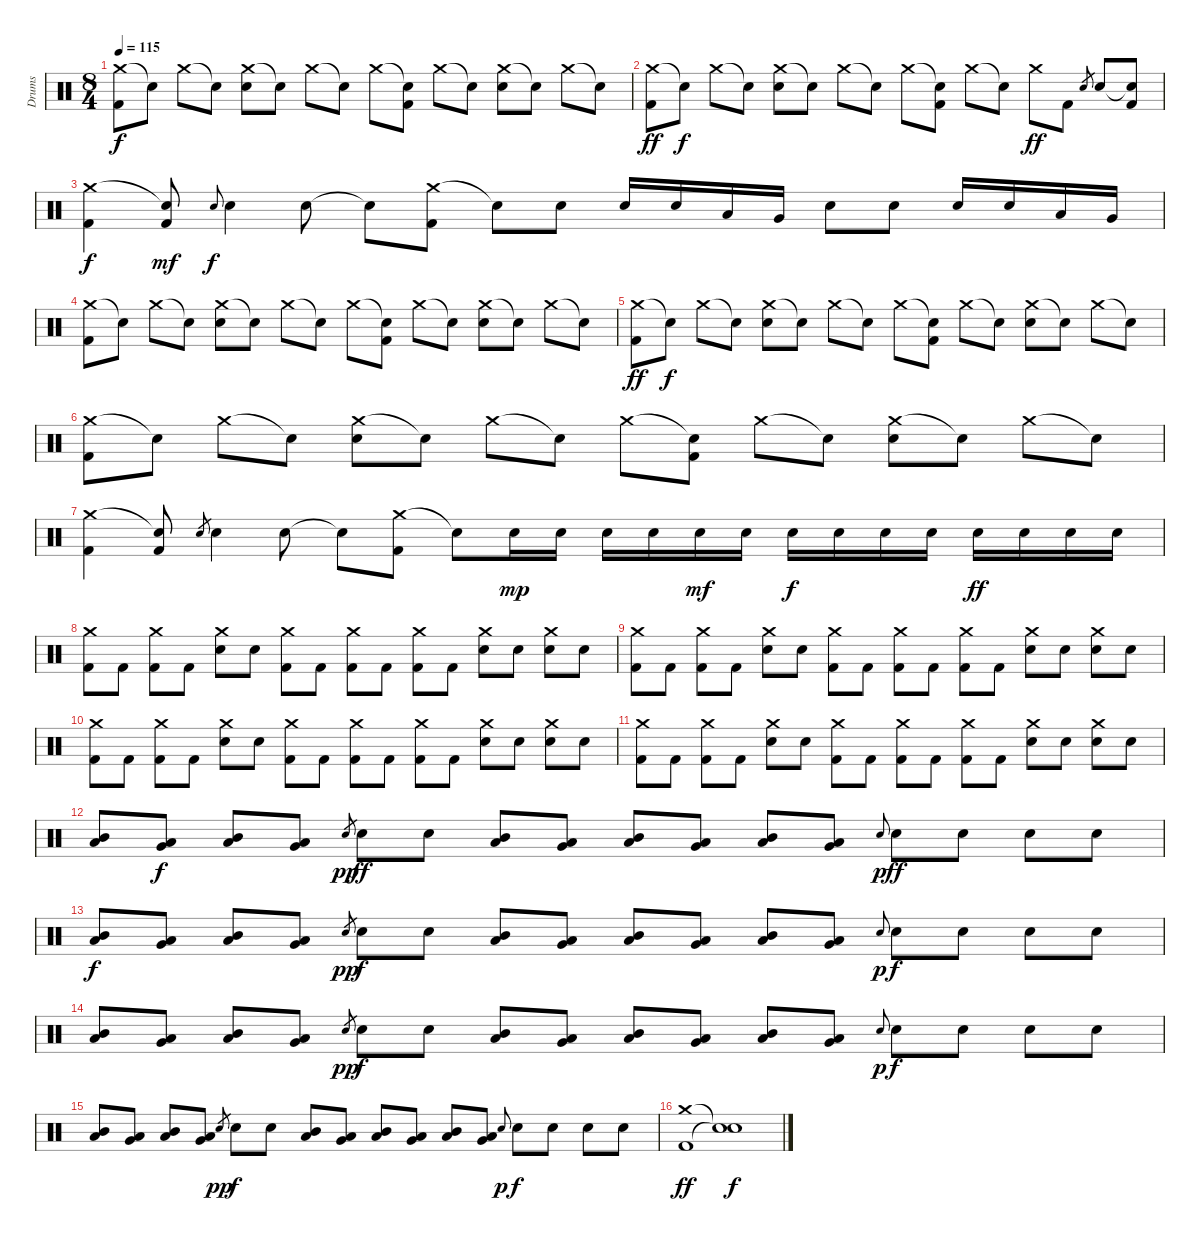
\track ("Drums" "Drums") {instrument percussion}
\staff {score}
\articulation defaults
\ts (8 4)
\tempo 115
\clef neutral
\ks c
("Crash medium (hit)" "Kick (hit) 2").8{dy f} "Snare (hit)"{t}.8 "Crash medium (hit)".8 "Snare (hit)"{t}.8 ("Crash medium (hit)" "Electric Snare (hit)").8 "Snare (hit)"{t}.8 "Crash medium (hit)".8 "Snare (hit)"{t}.8 "Crash medium (hit)".8 ("Snare (hit)"{t} "Kick (hit) 2").8 "Crash medium (hit)".8 "Snare (hit)"{t}.8 ("Crash medium (hit)" "Electric Snare (hit)").8 "Snare (hit)"{t}.8 "Crash medium (hit)".8 "Snare (hit)"{t}.8 |
("Crash medium (hit)" "Kick (hit) 2").8{dy ff} "Snare (hit)"{t}.8{dy f} "Crash medium (hit)".8 "Snare (hit)"{t}.8 ("Crash medium (hit)" "Electric Snare (hit)").8 "Snare (hit)"{t}.8 "Crash medium (hit)".8 "Snare (hit)"{t}.8 "Crash medium (hit)".8 ("Snare (hit)"{t} "Kick (hit) 2").8 "Crash medium (hit)".8 "Snare (hit)"{t}.8 "Crash medium (hit)".8{dy ff} "Kick (hit) 2".8 "Electric Snare (hit)".8{gr} "Electric Snare (hit)".8 ("Snare (hit)"{t} "Kick (hit) 2").8 |
("Crash medium (hit)" "Kick (hit) 2").4{dy f} ("Snare (hit)"{t} "Kick (hit) 2").8{dy mf} "Electric Snare (hit)".8{gr onbeat dy f} "Electric Snare (hit)".4 "Electric Snare (hit)".8 "Snare (hit)"{t}.8 ("Crash medium (hit)" "Kick (hit) 2").8 "Snare (hit)"{t}.8 "Electric Snare (hit)".8 "Electric Snare (hit)".16 "Electric Snare (hit)".16 "Low Tom (hit)".16 "Very Low Tom (hit)".16 "Electric Snare (hit)".8 "Electric Snare (hit)".8 "Electric Snare (hit)".16 "Electric Snare (hit)".16 "Low Tom (hit)".16 "Very Low Tom (hit)".16 |
("Crash medium (hit)" "Kick (hit) 2").8 "Snare (hit)"{t}.8 "Crash medium (hit)".8 "Snare (hit)"{t}.8 ("Crash medium (hit)" "Electric Snare (hit)").8 "Snare (hit)"{t}.8 "Crash medium (hit)".8 "Snare (hit)"{t}.8 "Crash medium (hit)".8 ("Snare (hit)"{t} "Kick (hit) 2").8 "Crash medium (hit)".8 "Snare (hit)"{t}.8 ("Crash medium (hit)" "Electric Snare (hit)").8 "Snare (hit)"{t}.8 "Crash medium (hit)".8 "Snare (hit)"{t}.8 |
("Crash medium (hit)" "Kick (hit) 2").8{dy ff} "Snare (hit)"{t}.8{dy f} "Crash medium (hit)".8 "Snare (hit)"{t}.8 ("Crash medium (hit)" "Electric Snare (hit)").8 "Snare (hit)"{t}.8 "Crash medium (hit)".8 "Snare (hit)"{t}.8 "Crash medium (hit)".8 ("Snare (hit)"{t} "Kick (hit) 2").8 "Crash medium (hit)".8 "Snare (hit)"{t}.8 ("Crash medium (hit)" "Electric Snare (hit)").8 "Snare (hit)"{t}.8 "Crash medium (hit)".8 "Snare (hit)"{t}.8 |
("Crash medium (hit)" "Kick (hit) 2").8 "Snare (hit)"{t}.8 "Crash medium (hit)".8 "Snare (hit)"{t}.8 ("Crash medium (hit)" "Electric Snare (hit)").8 "Snare (hit)"{t}.8 "Crash medium (hit)".8 "Snare (hit)"{t}.8 "Crash medium (hit)".8 ("Snare (hit)"{t} "Kick (hit) 2").8 "Crash medium (hit)".8 "Snare (hit)"{t}.8 ("Crash medium (hit)" "Electric Snare (hit)").8 "Snare (hit)"{t}.8 "Crash medium (hit)".8 "Snare (hit)"{t}.8 |
("Crash medium (hit)" "Kick (hit) 2").4 ("Snare (hit)"{t} "Kick (hit) 2").8 "Electric Snare (hit)".8{gr} "Electric Snare (hit)".4 "Electric Snare (hit)".8 "Snare (hit)"{t}.8 ("Crash medium (hit)" "Kick (hit) 2").8 "Snare (hit)"{t}.8 "Electric Snare (hit)".16{dy mp} "Electric Snare (hit)".16 "Electric Snare (hit)".16 "Electric Snare (hit)".16 "Electric Snare (hit)".16{dy mf} "Electric Snare (hit)".16 "Electric Snare (hit)".16{dy f} "Electric Snare (hit)".16 "Electric Snare (hit)".16 "Electric Snare (hit)".16 "Electric Snare (hit)".16{dy ff} "Electric Snare (hit)".16 "Electric Snare (hit)".16 "Electric Snare (hit)".16 |
("Crash medium (hit)" "Kick (hit) 2").8 "Kick (hit) 2".8 ("Crash medium (hit)" "Kick (hit) 2").8 "Kick (hit) 2".8 ("Crash medium (hit)" "Electric Snare (hit)").8 "Electric Snare (hit)".8 ("Crash medium (hit)" "Kick (hit) 2").8 "Kick (hit) 2".8 ("Crash medium (hit)" "Kick (hit) 2").8 "Kick (hit) 2".8 ("Crash medium (hit)" "Kick (hit) 2").8 "Kick (hit) 2".8 ("Crash medium (hit)" "Electric Snare (hit)").8 "Electric Snare (hit)".8 ("Crash medium (hit)" "Electric Snare (hit)").8 "Electric Snare (hit)".8 |
("Crash medium (hit)" "Kick (hit) 2").8 "Kick (hit) 2".8 ("Crash medium (hit)" "Kick (hit) 2").8 "Kick (hit) 2".8 ("Crash medium (hit)" "Electric Snare (hit)").8 "Electric Snare (hit)".8 ("Crash medium (hit)" "Kick (hit) 2").8 "Kick (hit) 2".8 ("Crash medium (hit)" "Kick (hit) 2").8 "Kick (hit) 2".8 ("Crash medium (hit)" "Kick (hit) 2").8 "Kick (hit) 2".8 ("Crash medium (hit)" "Electric Snare (hit)").8 "Electric Snare (hit)".8 ("Crash medium (hit)" "Electric Snare (hit)").8 "Electric Snare (hit)".8 |
("Crash medium (hit)" "Kick (hit) 2").8 "Kick (hit) 2".8 ("Crash medium (hit)" "Kick (hit) 2").8 "Kick (hit) 2".8 ("Crash medium (hit)" "Electric Snare (hit)").8 "Electric Snare (hit)".8 ("Crash medium (hit)" "Kick (hit) 2").8 "Kick (hit) 2".8 ("Crash medium (hit)" "Kick (hit) 2").8 "Kick (hit) 2".8 ("Crash medium (hit)" "Kick (hit) 2").8 "Kick (hit) 2".8 ("Crash medium (hit)" "Electric Snare (hit)").8 "Electric Snare (hit)".8 ("Crash medium (hit)" "Electric Snare (hit)").8 "Electric Snare (hit)".8 |
("Crash medium (hit)" "Kick (hit) 2").8 "Kick (hit) 2".8 ("Crash medium (hit)" "Kick (hit) 2").8 "Kick (hit) 2".8 ("Crash medium (hit)" "Electric Snare (hit)").8 "Electric Snare (hit)".8 ("Crash medium (hit)" "Kick (hit) 2").8 "Kick (hit) 2".8 ("Crash medium (hit)" "Kick (hit) 2").8 "Kick (hit) 2".8 ("Crash medium (hit)" "Kick (hit) 2").8 "Kick (hit) 2".8 ("Crash medium (hit)" "Electric Snare (hit)").8 "Electric Snare (hit)".8 ("Crash medium (hit)" "Electric Snare (hit)").8 "Electric Snare (hit)".8 |
("Low Tom (hit)" "Mid Tom (hit)").8 ("Low Tom (hit)" "Very Low Tom (hit)").8{dy f} ("Low Tom (hit)" "Mid Tom (hit)").8 ("Very Low Tom (hit)" "Low Tom (hit)").8 "Electric Snare (hit)".8{gr dy pp} "Electric Snare (hit)".8{dy ff} "Electric Snare (hit)".8 ("Low Tom (hit)" "Mid Tom (hit)").8 ("Low Tom (hit)" "Very Low Tom (hit)").8 ("Low Tom (hit)" "Mid Tom (hit)").8 ("Very Low Tom (hit)" "Low Tom (hit)").8 ("Low Tom (hit)" "Mid Tom (hit)").8 ("Very Low Tom (hit)" "Low Tom (hit)").8 "Electric Snare (hit)".8{gr onbeat dy p} "Electric Snare (hit)".8{dy ff} "Electric Snare (hit)".8 "Electric Snare (hit)".8 "Electric Snare (hit)".8 |
("Low Tom (hit)" "Mid Tom (hit)").8{dy f} ("Low Tom (hit)" "Very Low Tom (hit)").8 ("Low Tom (hit)" "Mid Tom (hit)").8 ("Very Low Tom (hit)" "Low Tom (hit)").8 "Electric Snare (hit)".8{gr dy pp} "Electric Snare (hit)".8{dy f} "Electric Snare (hit)".8 ("Low Tom (hit)" "Mid Tom (hit)").8 ("Low Tom (hit)" "Very Low Tom (hit)").8 ("Low Tom (hit)" "Mid Tom (hit)").8 ("Very Low Tom (hit)" "Low Tom (hit)").8 ("Low Tom (hit)" "Mid Tom (hit)").8 ("Very Low Tom (hit)" "Low Tom (hit)").8 "Electric Snare (hit)".8{gr onbeat dy p} "Electric Snare (hit)".8{dy f} "Electric Snare (hit)".8 "Electric Snare (hit)".8 "Electric Snare (hit)".8 |
("Low Tom (hit)" "Mid Tom (hit)").8 ("Low Tom (hit)" "Very Low Tom (hit)").8 ("Low Tom (hit)" "Mid Tom (hit)").8 ("Very Low Tom (hit)" "Low Tom (hit)").8 "Electric Snare (hit)".8{gr dy pp} "Electric Snare (hit)".8{dy f} "Electric Snare (hit)".8 ("Low Tom (hit)" "Mid Tom (hit)").8 ("Low Tom (hit)" "Very Low Tom (hit)").8 ("Low Tom (hit)" "Mid Tom (hit)").8 ("Very Low Tom (hit)" "Low Tom (hit)").8 ("Low Tom (hit)" "Mid Tom (hit)").8 ("Very Low Tom (hit)" "Low Tom (hit)").8 "Electric Snare (hit)".8{gr onbeat dy p} "Electric Snare (hit)".8{dy f} "Electric Snare (hit)".8 "Electric Snare (hit)".8 "Electric Snare (hit)".8 |
("Low Tom (hit)" "Mid Tom (hit)").8 ("Low Tom (hit)" "Very Low Tom (hit)").8 ("Low Tom (hit)" "Mid Tom (hit)").8 ("Very Low Tom (hit)" "Low Tom (hit)").8 "Electric Snare (hit)".8{gr dy pp} "Electric Snare (hit)".8{dy f} "Electric Snare (hit)".8 ("Low Tom (hit)" "Mid Tom (hit)").8 ("Low Tom (hit)" "Very Low Tom (hit)").8 ("Low Tom (hit)" "Mid Tom (hit)").8 ("Very Low Tom (hit)" "Low Tom (hit)").8 ("Low Tom (hit)" "Mid Tom (hit)").8 ("Very Low Tom (hit)" "Low Tom (hit)").8 "Electric Snare (hit)".8{gr onbeat dy p} "Electric Snare (hit)".8{dy f} "Electric Snare (hit)".8 "Electric Snare (hit)".8 "Electric Snare (hit)".8 |
("Crash medium (hit)" "Kick (hit) 2").1{dy ff} ("Snare (hit)"{t} "Snare (hit)"{t}).1{dy f}
